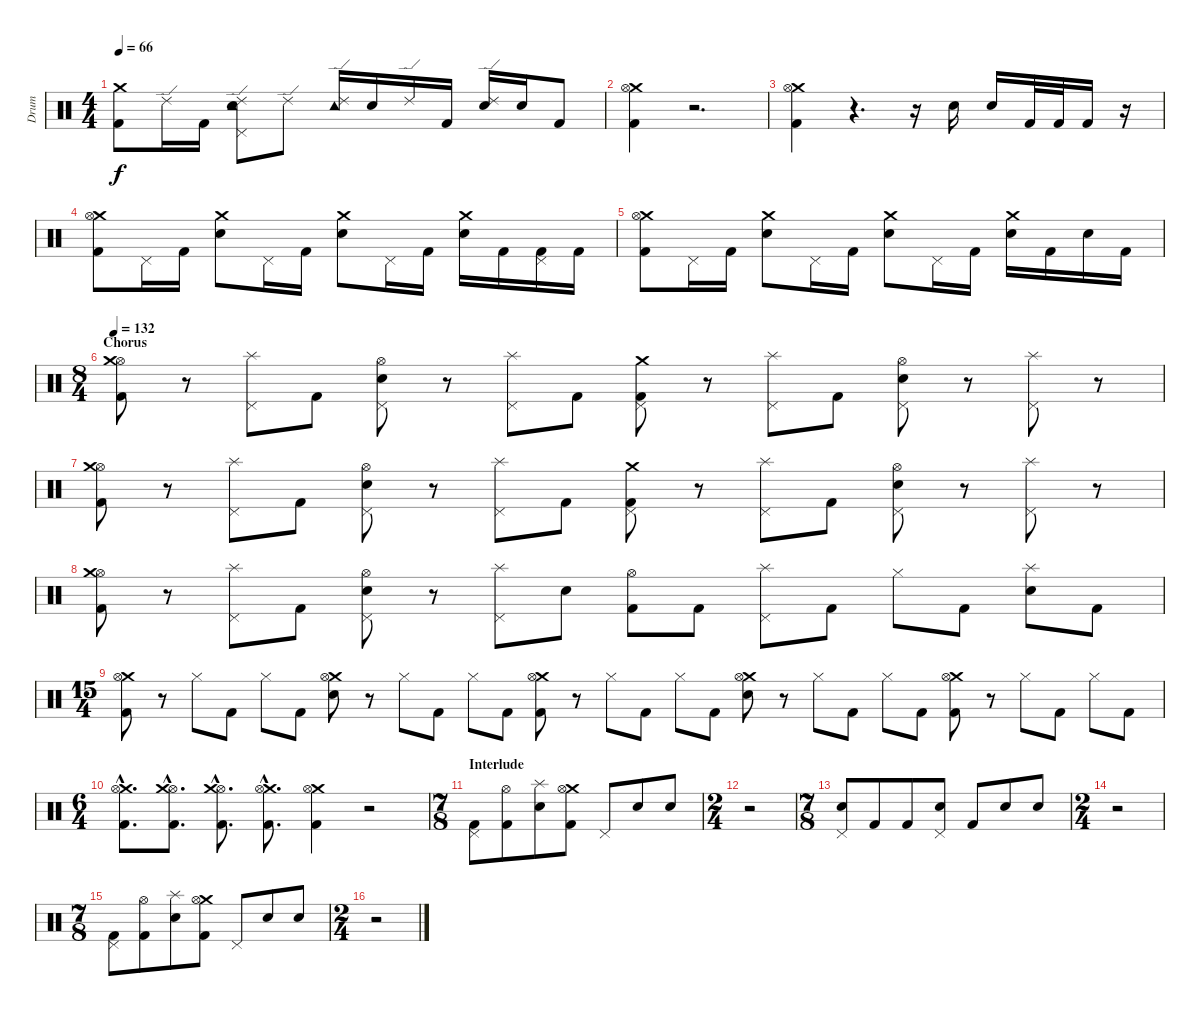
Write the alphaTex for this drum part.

\track (" Drum" " Drum") {instrument percussion}
\staff {score}
\articulation defaults
\ts (4 4)
\tempo 66
\clef neutral
\ks c
("Crash medium (hit)" "Kick (hit) 2").8{dy f} "Ride (edge) 2".16 "Kick (hit) 2".16 ("Tambourine (hit)" "Pedal Hi-Hat (hit)" "Electric Snare (hit)" "Ride (edge) 2").8 "Ride (edge) 2".8 ("Tambourine (hit)" "Ride (edge) 2").16 "Electric Snare (hit)".16 "Ride (edge) 2".16 "Kick (hit) 2".16 ("Electric Snare (hit)" "Ride (edge) 2").16 "Electric Snare (hit)".16 "Kick (hit) 2".8 |
("Crash medium (hit)" "Hi-Hat (open)" "Kick (hit) 2").4 r.2{d} |
("Crash medium (hit)" "Hi-Hat (open)" "Kick (hit) 2").4 r.4{d} r.16 "Electric Snare (hit)".16 "Electric Snare (hit)".16 "Kick (hit) 2".32 "Kick (hit) 2".32 "Kick (hit) 2".16 r.16 |
("Crash medium (hit)" "Hi-Hat (open)" "Kick (hit) 2").8 "Pedal Hi-Hat (hit)".16 "Kick (hit) 2".16 ("Crash medium (hit)" "Electric Snare (hit)").8 "Pedal Hi-Hat (hit)".16 "Kick (hit) 2".16 ("Crash medium (hit)" "Electric Snare (hit)").8 "Pedal Hi-Hat (hit)".16 "Kick (hit) 2".16 ("Crash medium (hit)" "Electric Snare (hit)").16 "Kick (hit) 2".16 ("Kick (hit) 2" "Pedal Hi-Hat (hit)").16 "Kick (hit) 2".16 |
("Crash medium (hit)" "Hi-Hat (open)" "Kick (hit) 2").8 "Pedal Hi-Hat (hit)".16 "Kick (hit) 2".16 ("Crash medium (hit)" "Electric Snare (hit)").8 "Pedal Hi-Hat (hit)".16 "Kick (hit) 2".16 ("Crash medium (hit)" "Electric Snare (hit)").8 "Pedal Hi-Hat (hit)".16 "Kick (hit) 2".16 ("Crash medium (hit)" "Electric Snare (hit)").16 "Kick (hit) 2".16 "Electric Snare (hit)".16 "Kick (hit) 2".16 |
\ts (8 4)
\section ("" "Chorus")
\tempo 132
("Kick (hit) 2" "Hi-Hat (open)" "Crash medium (hit)").8 r.8 ("Pedal Hi-Hat (hit)" "Splash (hit)").8 "Kick (hit) 2".8 ("Pedal Hi-Hat (hit)" "Hi-Hat (open)" "Electric Snare (hit)").8 r.8 ("Pedal Hi-Hat (hit)" "Splash (hit)").8 "Kick (hit) 2".8 ("Pedal Hi-Hat (hit)" "Crash medium (hit)" "Kick (hit) 2").8 r.8 ("Pedal Hi-Hat (hit)" "Splash (hit)").8 "Kick (hit) 2".8 ("Pedal Hi-Hat (hit)" "Electric Snare (hit)" "Hi-Hat (open)").8 r.8 ("Pedal Hi-Hat (hit)" "Splash (hit)").8 r.8 |
("Kick (hit) 2" "Hi-Hat (open)" "Crash medium (hit)").8 r.8 ("Pedal Hi-Hat (hit)" "Splash (hit)").8 "Kick (hit) 2".8 ("Pedal Hi-Hat (hit)" "Hi-Hat (open)" "Electric Snare (hit)").8 r.8 ("Pedal Hi-Hat (hit)" "Splash (hit)").8 "Kick (hit) 2".8 ("Pedal Hi-Hat (hit)" "Crash medium (hit)" "Kick (hit) 2").8 r.8 ("Pedal Hi-Hat (hit)" "Splash (hit)").8 "Kick (hit) 2".8 ("Pedal Hi-Hat (hit)" "Electric Snare (hit)" "Hi-Hat (open)").8 r.8 ("Pedal Hi-Hat (hit)" "Splash (hit)").8 r.8 |
("Kick (hit) 2" "Hi-Hat (open)" "Crash medium (hit)").8 r.8 ("Pedal Hi-Hat (hit)" "Splash (hit)").8 "Kick (hit) 2".8 ("Pedal Hi-Hat (hit)" "Hi-Hat (open)" "Electric Snare (hit)").8 r.8 ("Pedal Hi-Hat (hit)" "Splash (hit)").8 "Electric Snare (hit)".8 ("Hi-Hat (open)" "Kick (hit) 2").8 "Kick (hit) 2".8 ("Pedal Hi-Hat (hit)" "Splash (hit)").8 "Kick (hit) 2".8 "Hi-Hat (closed)".8 "Kick (hit) 2".8 ("Splash (hit)" "Electric Snare (hit)").8 "Kick (hit) 2".8 |
\ts (15 4)
("Crash medium (hit)" "Hi-Hat (open)" "Kick (hit) 2").8 r.8 "Hi-Hat (closed)".8 "Kick (hit) 2".8 "Hi-Hat (closed)".8 "Kick (hit) 2".8 ("Electric Snare (hit)" "Crash medium (hit)" "Hi-Hat (open)").8 r.8 "Hi-Hat (closed)".8 "Kick (hit) 2".8 "Hi-Hat (closed)".8 "Kick (hit) 2".8 ("Crash medium (hit)" "Hi-Hat (open)" "Kick (hit) 2").8 r.8 "Hi-Hat (closed)".8 "Kick (hit) 2".8 "Hi-Hat (closed)".8 "Kick (hit) 2".8 ("Crash medium (hit)" "Hi-Hat (open)" "Electric Snare (hit)").8 r.8 "Hi-Hat (closed)".8 "Kick (hit) 2".8 "Hi-Hat (closed)".8 "Kick (hit) 2".8 ("Crash medium (hit)" "Hi-Hat (open)" "Kick (hit) 2").8 r.8 "Hi-Hat (closed)".8 "Kick (hit) 2".8 "Hi-Hat (closed)".8 "Kick (hit) 2".8 |
\ts (6 4)
("Crash medium (hit)"{hac} "Hi-Hat (open)"{hac} "Kick (hit) 2"{hac}).8{d} ("Hi-Hat (open)"{hac} "Crash medium (hit)"{hac} "Kick (hit) 2"{hac}).8{d} ("Hi-Hat (open)"{hac} "Crash medium (hit)"{hac} "Kick (hit) 2"{hac}).8{d} ("Crash medium (hit)"{hac} "Hi-Hat (open)"{hac} "Kick (hit) 2"{hac}).8{d} ("Crash medium (hit)" "Hi-Hat (open)" "Kick (hit) 2").4 r.2 |
\ts (7 8)
\section ("" "Interlude")
("Pedal Hi-Hat (hit)" "Kick (hit) 2").8 ("Hi-Hat (open)" "Kick (hit) 2").8 ("Splash (hit)" "Electric Snare (hit)").8 ("Crash medium (hit)" "Hi-Hat (open)" "Kick (hit) 2").8 "Pedal Hi-Hat (hit)".8 "Electric Snare (hit)".8 "Electric Snare (hit)".8 |
\ts (2 4)
r.2 |
\ts (7 8)
("Pedal Hi-Hat (hit)" "Electric Snare (hit)").8 "Kick (hit) 2".8 "Kick (hit) 2".8 ("Pedal Hi-Hat (hit)" "Electric Snare (hit)").8 "Kick (hit) 2".8 "Electric Snare (hit)".8 "Electric Snare (hit)".8 |
\ts (2 4)
r.2 |
\ts (7 8)
("Pedal Hi-Hat (hit)" "Kick (hit) 2").8 ("Hi-Hat (open)" "Kick (hit) 2").8 ("Splash (hit)" "Electric Snare (hit)").8 ("Crash medium (hit)" "Hi-Hat (open)" "Kick (hit) 2").8 "Pedal Hi-Hat (hit)".8 "Electric Snare (hit)".8 "Electric Snare (hit)".8 |
\ts (2 4)
r.2
